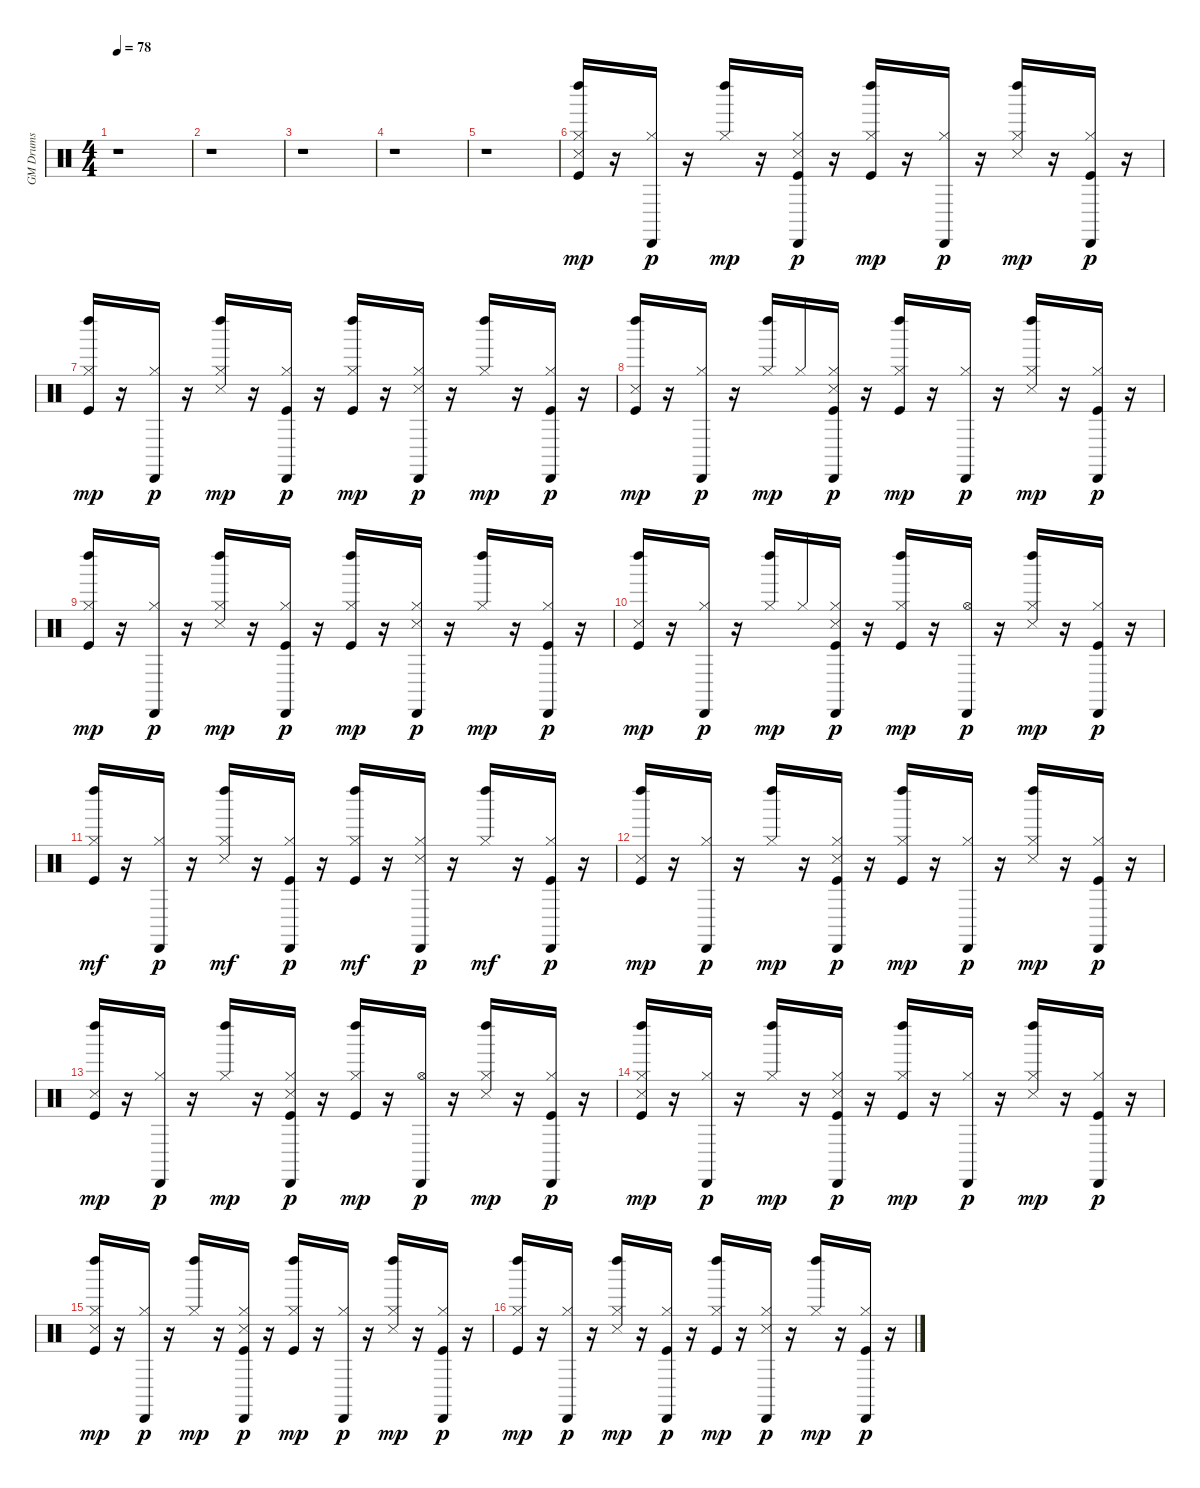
\track ("GM Drums" "GM Drums") {instrument percussion}
\staff {score}
\articulation defaults
\ts (4 4)
\tempo 78
\clef neutral
\ks c
r.1{dy p} |
r.1 |
r.1 |
r.1 |
r.1 |
("Kick (hit)" "Snare (side stick) 3" "Hi-Hat (closed)" "Left Maraca (hit)").16{dy mp} r.16 ("Hi-Hat (closed)" "Cabasa (hit)").16{dy p} r.16 ("Hi-Hat (closed)" "Left Maraca (hit)").16{dy mp} r.16 ("Kick (hit)" "Snare (side stick) 3" "Hi-Hat (closed)" "Cabasa (hit)").16{dy p} r.16 ("Kick (hit)" "Hi-Hat (closed)" "Left Maraca (hit)").16{dy mp} r.16 ("Hi-Hat (closed)" "Cabasa (hit)").16{dy p} r.16 ("Snare (side stick) 3" "Hi-Hat (closed)" "Left Maraca (hit)").16{dy mp} r.16 ("Kick (hit)" "Hi-Hat (closed)" "Cabasa (hit)").16{dy p} r.16 |
("Kick (hit)" "Hi-Hat (closed)" "Left Maraca (hit)").16{dy mp} r.16 ("Hi-Hat (closed)" "Cabasa (hit)").16{dy p} r.16 ("Snare (side stick) 3" "Hi-Hat (closed)" "Left Maraca (hit)").16{dy mp} r.16 ("Kick (hit)" "Hi-Hat (closed)" "Cabasa (hit)").16{dy p} r.16 ("Kick (hit)" "Hi-Hat (closed)" "Left Maraca (hit)").16{dy mp} r.16 ("Snare (side stick) 3" "Hi-Hat (closed)" "Cabasa (hit)").16{dy p} r.16 ("Hi-Hat (closed)" "Left Maraca (hit)").16{dy mp} r.16 ("Kick (hit)" "Hi-Hat (closed)" "Cabasa (hit)").16{dy p} r.16 |
("Kick (hit)" "Snare (side stick) 3" "Left Maraca (hit)").16{dy mp} r.16 ("Hi-Hat (closed)" "Cabasa (hit)").16{dy p} r.16 ("Hi-Hat (closed)" "Left Maraca (hit)").16{dy mp} "Hi-Hat (closed)".16 ("Kick (hit)" "Snare (side stick) 3" "Hi-Hat (closed)" "Cabasa (hit)").16{dy p} r.16 ("Kick (hit)" "Hi-Hat (closed)" "Left Maraca (hit)").16{dy mp} r.16 ("Hi-Hat (closed)" "Cabasa (hit)").16{dy p} r.16 ("Snare (side stick) 3" "Hi-Hat (closed)" "Left Maraca (hit)").16{dy mp} r.16 ("Kick (hit)" "Hi-Hat (closed)" "Cabasa (hit)").16{dy p} r.16 |
("Kick (hit)" "Hi-Hat (closed)" "Left Maraca (hit)").16{dy mp} r.16 ("Hi-Hat (closed)" "Cabasa (hit)").16{dy p} r.16 ("Snare (side stick) 3" "Hi-Hat (closed)" "Left Maraca (hit)").16{dy mp} r.16 ("Kick (hit)" "Hi-Hat (closed)" "Cabasa (hit)").16{dy p} r.16 ("Kick (hit)" "Hi-Hat (closed)" "Left Maraca (hit)").16{dy mp} r.16 ("Snare (side stick) 3" "Hi-Hat (closed)" "Cabasa (hit)").16{dy p} r.16 ("Hi-Hat (closed)" "Left Maraca (hit)").16{dy mp} r.16 ("Kick (hit)" "Hi-Hat (closed)" "Cabasa (hit)").16{dy p} r.16 |
("Kick (hit)" "Snare (side stick) 3" "Left Maraca (hit)").16{dy mp} r.16 ("Hi-Hat (closed)" "Cabasa (hit)").16{dy p} r.16 ("Hi-Hat (closed)" "Left Maraca (hit)").16{dy mp} "Hi-Hat (closed)".16 ("Kick (hit)" "Snare (side stick) 3" "Hi-Hat (closed)" "Cabasa (hit)").16{dy p} r.16 ("Kick (hit)" "Hi-Hat (closed)" "Left Maraca (hit)").16{dy mp} r.16 ("Hi-Hat (open)" "Cabasa (hit)").16{dy p} r.16 ("Snare (side stick) 3" "Hi-Hat (closed)" "Left Maraca (hit)").16{dy mp} r.16 ("Kick (hit)" "Hi-Hat (closed)" "Cabasa (hit)").16{dy p} r.16 |
("Kick (hit)" "Hi-Hat (closed)" "Left Maraca (hit)").16{dy mf} r.16 ("Hi-Hat (closed)" "Cabasa (hit)").16{dy p} r.16 ("Snare (side stick) 3" "Hi-Hat (closed)" "Left Maraca (hit)").16{dy mf} r.16 ("Kick (hit)" "Hi-Hat (closed)" "Cabasa (hit)").16{dy p} r.16 ("Kick (hit)" "Hi-Hat (closed)" "Left Maraca (hit)").16{dy mf} r.16 ("Snare (side stick) 3" "Hi-Hat (closed)" "Cabasa (hit)").16{dy p} r.16 ("Hi-Hat (closed)" "Left Maraca (hit)").16{dy mf} r.16 ("Kick (hit)" "Hi-Hat (closed)" "Cabasa (hit)").16{dy p} r.16 |
("Kick (hit)" "Snare (side stick) 3" "Left Maraca (hit)").16{dy mp} r.16 ("Hi-Hat (closed)" "Cabasa (hit)").16{dy p} r.16 ("Hi-Hat (closed)" "Left Maraca (hit)").16{dy mp} r.16 ("Kick (hit)" "Snare (side stick) 3" "Hi-Hat (closed)" "Cabasa (hit)").16{dy p} r.16 ("Kick (hit)" "Hi-Hat (closed)" "Left Maraca (hit)").16{dy mp} r.16 ("Hi-Hat (closed)" "Cabasa (hit)").16{dy p} r.16 ("Snare (side stick) 3" "Hi-Hat (closed)" "Left Maraca (hit)").16{dy mp} r.16 ("Kick (hit)" "Hi-Hat (closed)" "Cabasa (hit)").16{dy p} r.16 |
("Kick (hit)" "Snare (side stick) 3" "Left Maraca (hit)").16{dy mp} r.16 ("Hi-Hat (closed)" "Cabasa (hit)").16{dy p} r.16 ("Hi-Hat (closed)" "Left Maraca (hit)").16{dy mp} r.16 ("Kick (hit)" "Snare (side stick) 3" "Hi-Hat (closed)" "Cabasa (hit)").16{dy p} r.16 ("Kick (hit)" "Hi-Hat (closed)" "Left Maraca (hit)").16{dy mp} r.16 ("Hi-Hat (open)" "Cabasa (hit)").16{dy p} r.16 ("Snare (side stick) 3" "Hi-Hat (closed)" "Left Maraca (hit)").16{dy mp} r.16 ("Kick (hit)" "Hi-Hat (closed)" "Cabasa (hit)").16{dy p} r.16 |
("Kick (hit)" "Snare (side stick) 3" "Hi-Hat (closed)" "Left Maraca (hit)").16{dy mp} r.16 ("Hi-Hat (closed)" "Cabasa (hit)").16{dy p} r.16 ("Hi-Hat (closed)" "Left Maraca (hit)").16{dy mp} r.16 ("Kick (hit)" "Snare (side stick) 3" "Hi-Hat (closed)" "Cabasa (hit)").16{dy p} r.16 ("Kick (hit)" "Hi-Hat (closed)" "Left Maraca (hit)").16{dy mp} r.16 ("Hi-Hat (closed)" "Cabasa (hit)").16{dy p} r.16 ("Snare (side stick) 3" "Hi-Hat (closed)" "Left Maraca (hit)").16{dy mp} r.16 ("Kick (hit)" "Hi-Hat (closed)" "Cabasa (hit)").16{dy p} r.16 |
("Kick (hit)" "Snare (side stick) 3" "Hi-Hat (closed)" "Left Maraca (hit)").16{dy mp} r.16 ("Hi-Hat (closed)" "Cabasa (hit)").16{dy p} r.16 ("Hi-Hat (closed)" "Left Maraca (hit)").16{dy mp} r.16 ("Kick (hit)" "Snare (side stick) 3" "Hi-Hat (closed)" "Cabasa (hit)").16{dy p} r.16 ("Kick (hit)" "Hi-Hat (closed)" "Left Maraca (hit)").16{dy mp} r.16 ("Hi-Hat (closed)" "Cabasa (hit)").16{dy p} r.16 ("Snare (side stick) 3" "Hi-Hat (closed)" "Left Maraca (hit)").16{dy mp} r.16 ("Kick (hit)" "Hi-Hat (closed)" "Cabasa (hit)").16{dy p} r.16 |
("Kick (hit)" "Hi-Hat (closed)" "Left Maraca (hit)").16{dy mp} r.16 ("Hi-Hat (closed)" "Cabasa (hit)").16{dy p} r.16 ("Snare (side stick) 3" "Hi-Hat (closed)" "Left Maraca (hit)").16{dy mp} r.16 ("Kick (hit)" "Hi-Hat (closed)" "Cabasa (hit)").16{dy p} r.16 ("Kick (hit)" "Hi-Hat (closed)" "Left Maraca (hit)").16{dy mp} r.16 ("Snare (side stick) 3" "Hi-Hat (closed)" "Cabasa (hit)").16{dy p} r.16 ("Hi-Hat (closed)" "Left Maraca (hit)").16{dy mp} r.16 ("Kick (hit)" "Hi-Hat (closed)" "Cabasa (hit)").16{dy p} r.16
